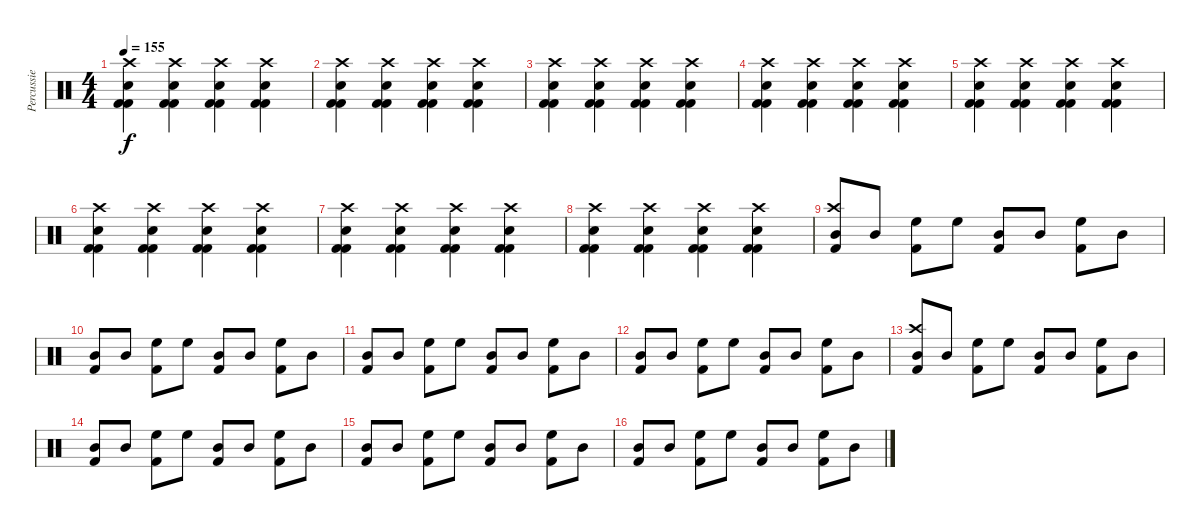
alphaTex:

\track ("Percussie" "Percussie") {instrument percussion}
\staff {score}
\articulation defaults
\ts (4 4)
\tempo 155
\clef neutral
\ks c
("Kick (hit) 2" "Electric Snare (hit)" "Crash high (hit)" "Kick (hit) 2").4{dy f} ("Kick (hit) 2" "Electric Snare (hit)" "Crash high (hit)" "Kick (hit) 2").4 ("Kick (hit) 2" "Electric Snare (hit)" "Crash high (hit)" "Kick (hit) 2").4 ("Kick (hit) 2" "Electric Snare (hit)" "Crash high (hit)" "Kick (hit) 2").4 |
("Kick (hit) 2" "Electric Snare (hit)" "Crash high (hit)" "Kick (hit) 2").4 ("Kick (hit) 2" "Electric Snare (hit)" "Crash high (hit)" "Kick (hit) 2").4 ("Kick (hit) 2" "Electric Snare (hit)" "Crash high (hit)" "Kick (hit) 2").4 ("Kick (hit) 2" "Electric Snare (hit)" "Crash high (hit)" "Kick (hit) 2").4 |
("Kick (hit) 2" "Electric Snare (hit)" "Crash high (hit)" "Kick (hit) 2").4 ("Kick (hit) 2" "Electric Snare (hit)" "Crash high (hit)" "Kick (hit) 2").4 ("Kick (hit) 2" "Electric Snare (hit)" "Crash high (hit)" "Kick (hit) 2").4 ("Kick (hit) 2" "Electric Snare (hit)" "Crash high (hit)" "Kick (hit) 2").4 |
("Kick (hit) 2" "Electric Snare (hit)" "Crash high (hit)" "Kick (hit) 2").4 ("Kick (hit) 2" "Electric Snare (hit)" "Crash high (hit)" "Kick (hit) 2").4 ("Kick (hit) 2" "Electric Snare (hit)" "Crash high (hit)" "Kick (hit) 2").4 ("Kick (hit) 2" "Electric Snare (hit)" "Crash high (hit)" "Kick (hit) 2").4 |
("Kick (hit) 2" "Electric Snare (hit)" "Crash high (hit)" "Kick (hit) 2").4 ("Kick (hit) 2" "Electric Snare (hit)" "Crash high (hit)" "Kick (hit) 2").4 ("Kick (hit) 2" "Electric Snare (hit)" "Crash high (hit)" "Kick (hit) 2").4 ("Kick (hit) 2" "Electric Snare (hit)" "Crash high (hit)" "Kick (hit) 2").4 |
("Kick (hit) 2" "Electric Snare (hit)" "Crash high (hit)" "Kick (hit) 2").4 ("Kick (hit) 2" "Electric Snare (hit)" "Crash high (hit)" "Kick (hit) 2").4 ("Kick (hit) 2" "Electric Snare (hit)" "Crash high (hit)" "Kick (hit) 2").4 ("Kick (hit) 2" "Electric Snare (hit)" "Crash high (hit)" "Kick (hit) 2").4 |
("Kick (hit) 2" "Electric Snare (hit)" "Crash high (hit)" "Kick (hit) 2").4 ("Kick (hit) 2" "Electric Snare (hit)" "Crash high (hit)" "Kick (hit) 2").4 ("Kick (hit) 2" "Electric Snare (hit)" "Crash high (hit)" "Kick (hit) 2").4 ("Kick (hit) 2" "Electric Snare (hit)" "Crash high (hit)" "Kick (hit) 2").4 |
("Kick (hit) 2" "Electric Snare (hit)" "Crash high (hit)" "Kick (hit) 2").4 ("Kick (hit) 2" "Electric Snare (hit)" "Crash high (hit)" "Kick (hit) 2").4 ("Kick (hit) 2" "Electric Snare (hit)" "Crash high (hit)" "Kick (hit) 2").4 ("Kick (hit) 2" "Electric Snare (hit)" "Crash high (hit)" "Kick (hit) 2").4 |
("Mid Tom (hit)" "Kick (hit) 2" "Crash high (hit)").8 "Mid Tom (hit)".8 ("High Floor Tom (hit)" "Kick (hit) 2").8 "High Floor Tom (hit)".8 ("Mid Tom (hit)" "Kick (hit) 2").8 "Mid Tom (hit)".8 ("High Floor Tom (hit)" "Kick (hit) 2").8 "Mid Tom (hit)".8 |
("Mid Tom (hit)" "Kick (hit) 2").8 "Mid Tom (hit)".8 ("High Floor Tom (hit)" "Kick (hit) 2").8 "High Floor Tom (hit)".8 ("Mid Tom (hit)" "Kick (hit) 2").8 "Mid Tom (hit)".8 ("High Floor Tom (hit)" "Kick (hit) 2").8 "Mid Tom (hit)".8 |
("Mid Tom (hit)" "Kick (hit) 2").8 "Mid Tom (hit)".8 ("High Floor Tom (hit)" "Kick (hit) 2").8 "High Floor Tom (hit)".8 ("Mid Tom (hit)" "Kick (hit) 2").8 "Mid Tom (hit)".8 ("High Floor Tom (hit)" "Kick (hit) 2").8 "Mid Tom (hit)".8 |
("Mid Tom (hit)" "Kick (hit) 2").8 "Mid Tom (hit)".8 ("High Floor Tom (hit)" "Kick (hit) 2").8 "High Floor Tom (hit)".8 ("Mid Tom (hit)" "Kick (hit) 2").8 "Mid Tom (hit)".8 ("High Floor Tom (hit)" "Kick (hit) 2").8 "Mid Tom (hit)".8 |
("Mid Tom (hit)" "Kick (hit) 2" "Crash high (hit)").8 "Mid Tom (hit)".8 ("High Floor Tom (hit)" "Kick (hit) 2").8 "High Floor Tom (hit)".8 ("Mid Tom (hit)" "Kick (hit) 2").8 "Mid Tom (hit)".8 ("High Floor Tom (hit)" "Kick (hit) 2").8 "Mid Tom (hit)".8 |
("Mid Tom (hit)" "Kick (hit) 2").8 "Mid Tom (hit)".8 ("High Floor Tom (hit)" "Kick (hit) 2").8 "High Floor Tom (hit)".8 ("Mid Tom (hit)" "Kick (hit) 2").8 "Mid Tom (hit)".8 ("High Floor Tom (hit)" "Kick (hit) 2").8 "Mid Tom (hit)".8 |
("Mid Tom (hit)" "Kick (hit) 2").8 "Mid Tom (hit)".8 ("High Floor Tom (hit)" "Kick (hit) 2").8 "High Floor Tom (hit)".8 ("Mid Tom (hit)" "Kick (hit) 2").8 "Mid Tom (hit)".8 ("High Floor Tom (hit)" "Kick (hit) 2").8 "Mid Tom (hit)".8 |
("Mid Tom (hit)" "Kick (hit) 2").8 "Mid Tom (hit)".8 ("High Floor Tom (hit)" "Kick (hit) 2").8 "High Floor Tom (hit)".8 ("Mid Tom (hit)" "Kick (hit) 2").8 "Mid Tom (hit)".8 ("High Floor Tom (hit)" "Kick (hit) 2").8 "Mid Tom (hit)".8
